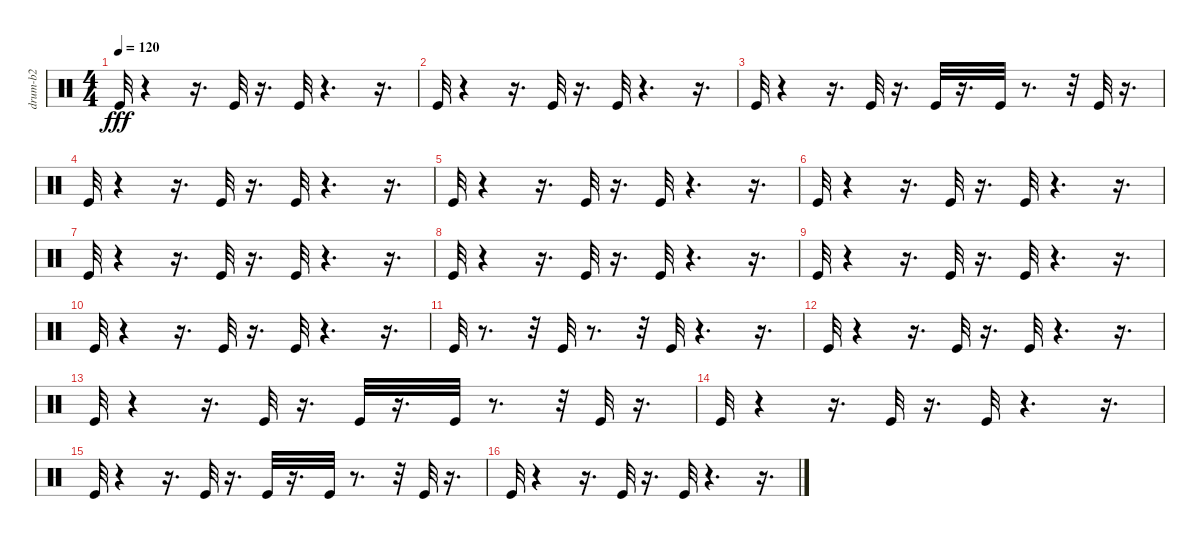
\track ("drum-b2" "drum-b2") {instrument percussion}
\staff {score}
\articulation defaults
\ts (4 4)
\tempo 120
\clef neutral
\ks c "Kick (hit)".32{dy fff}
r.4 r.16{d} "Kick (hit)".32 r.16{d} "Kick (hit)".32 r.4{d} r.16{d} |
"Kick (hit)".32 r.4 r.16{d} "Kick (hit)".32 r.16{d} "Kick (hit)".32 r.4{d} r.16{d} |
"Kick (hit)".32 r.4 r.16{d} "Kick (hit)".32 r.16{d} "Kick (hit)".32 r.16{d} "Kick (hit)".32 r.8{d} r.32 "Kick (hit)".32 r.16{d} |
"Kick (hit)".32 r.4 r.16{d} "Kick (hit)".32 r.16{d} "Kick (hit)".32 r.4{d} r.16{d} |
"Kick (hit)".32 r.4 r.16{d} "Kick (hit)".32 r.16{d} "Kick (hit)".32 r.4{d} r.16{d} |
"Kick (hit)".32 r.4 r.16{d} "Kick (hit)".32 r.16{d} "Kick (hit)".32 r.4{d} r.16{d} |
"Kick (hit)".32 r.4 r.16{d} "Kick (hit)".32 r.16{d} "Kick (hit)".32 r.4{d} r.16{d} |
"Kick (hit)".32 r.4 r.16{d} "Kick (hit)".32 r.16{d} "Kick (hit)".32 r.4{d} r.16{d} |
"Kick (hit)".32 r.4 r.16{d} "Kick (hit)".32 r.16{d} "Kick (hit)".32 r.4{d} r.16{d} |
"Kick (hit)".32 r.4 r.16{d} "Kick (hit)".32 r.16{d} "Kick (hit)".32 r.4{d} r.16{d} |
"Kick (hit)".32 r.8{d} r.32 "Kick (hit)".32 r.8{d} r.32 "Kick (hit)".32 r.4{d} r.16{d} |
"Kick (hit)".32 r.4 r.16{d} "Kick (hit)".32 r.16{d} "Kick (hit)".32 r.4{d} r.16{d} |
"Kick (hit)".32 r.4 r.16{d} "Kick (hit)".32 r.16{d} "Kick (hit)".32 r.16{d} "Kick (hit)".32 r.8{d} r.32 "Kick (hit)".32 r.16{d} |
"Kick (hit)".32 r.4 r.16{d} "Kick (hit)".32 r.16{d} "Kick (hit)".32 r.4{d} r.16{d} |
"Kick (hit)".32 r.4 r.16{d} "Kick (hit)".32 r.16{d} "Kick (hit)".32 r.16{d} "Kick (hit)".32 r.8{d} r.32 "Kick (hit)".32 r.16{d} |
"Kick (hit)".32 r.4 r.16{d} "Kick (hit)".32 r.16{d} "Kick (hit)".32 r.4{d} r.16{d}
